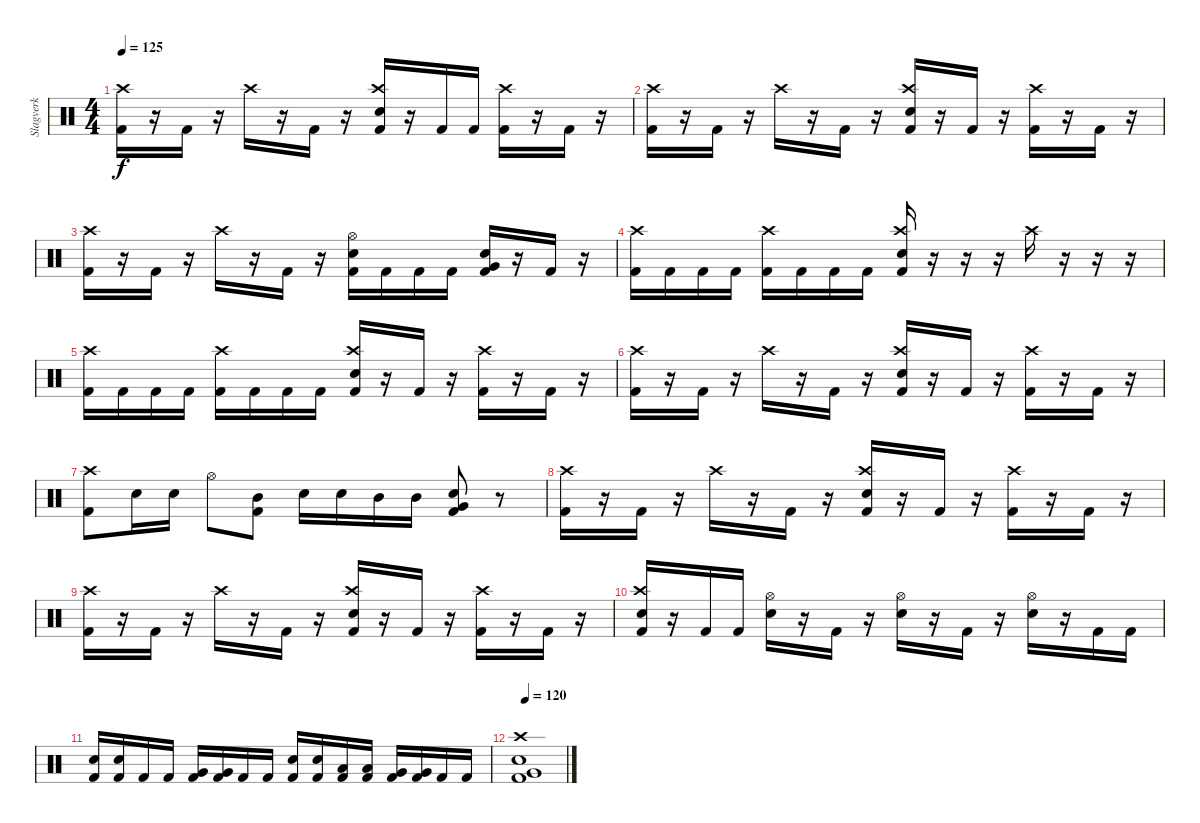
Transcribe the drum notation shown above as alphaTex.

\track ("Slagverk" "Slagverk") {instrument percussion}
\staff {score}
\articulation defaults
\ts (4 4)
\tempo 125
\clef neutral
\ks c
("Kick (hit) 2" "Crash high (hit)").16{dy f} r.16 "Kick (hit) 2".16 r.16 "Crash high (hit)".16 r.16 "Kick (hit) 2".16 r.16 ("Kick (hit) 2" "Snare (hit) 2" "Crash high (hit)").16 r.16 "Kick (hit) 2".16 "Kick (hit) 2".16 ("Kick (hit) 2" "Crash high (hit)").16 r.16 "Kick (hit) 2".16 r.16 |
("Kick (hit) 2" "Crash high (hit)").16 r.16 "Kick (hit) 2".16 r.16 "Crash high (hit)".16 r.16 "Kick (hit) 2".16 r.16 ("Kick (hit) 2" "Snare (hit) 2" "Crash high (hit)").16 r.16 "Kick (hit) 2".16 r.16 ("Kick (hit) 2" "Crash high (hit)").16 r.16 "Kick (hit) 2".16 r.16 |
("Kick (hit) 2" "Crash high (hit)").16 r.16 "Kick (hit) 2".16 r.16 "Crash high (hit)".16 r.16 "Kick (hit) 2".16 r.16 ("Kick (hit) 2" "Snare (hit) 2" "Hi-Hat (open)").16 "Kick (hit) 2".16 "Kick (hit) 2".16 "Kick (hit) 2".16 ("Kick (hit) 2" "Snare (hit) 2" "Very Low Tom (hit)").16 r.16 "Kick (hit) 2".16 r.16 |
("Kick (hit) 2" "Crash high (hit)").16 "Kick (hit) 2".16 "Kick (hit) 2".16 "Kick (hit) 2".16 ("Kick (hit) 2" "Crash high (hit)").16 "Kick (hit) 2".16 "Kick (hit) 2".16 "Kick (hit) 2".16 ("Kick (hit) 2" "Snare (hit) 2" "Crash high (hit)").16 r.16 r.16 r.16 "Crash high (hit)".16 r.16 r.16 r.16 |
("Kick (hit) 2" "Crash high (hit)").16 "Kick (hit) 2".16 "Kick (hit) 2".16 "Kick (hit) 2".16 ("Kick (hit) 2" "Crash high (hit)").16 "Kick (hit) 2".16 "Kick (hit) 2".16 "Kick (hit) 2".16 ("Kick (hit) 2" "Snare (hit) 2" "Crash high (hit)").16 r.16 "Kick (hit) 2".16 r.16 ("Kick (hit) 2" "Crash high (hit)").16 r.16 "Kick (hit) 2".16 r.16 |
("Kick (hit) 2" "Crash high (hit)").16 r.16 "Kick (hit) 2".16 r.16 "Crash high (hit)".16 r.16 "Kick (hit) 2".16 r.16 ("Kick (hit) 2" "Snare (hit) 2" "Crash high (hit)").16 r.16 "Kick (hit) 2".16 r.16 ("Kick (hit) 2" "Crash high (hit)").16 r.16 "Kick (hit) 2".16 r.16 |
("Kick (hit) 2" "Crash high (hit)").8 "Snare (hit) 2".16 "Snare (hit) 2".16 "Hi-Hat (open)".8 ("Kick (hit) 2" "Mid Tom (hit)").8 "Snare (hit) 2".16 "Snare (hit) 2".16 "Mid Tom (hit)".16 "Mid Tom (hit)".16 ("Kick (hit) 2" "Very Low Tom (hit)" "Snare (hit) 2").8 r.8 |
("Kick (hit) 2" "Crash high (hit)").16 r.16 "Kick (hit) 2".16 r.16 "Crash high (hit)".16 r.16 "Kick (hit) 2".16 r.16 ("Kick (hit) 2" "Snare (hit) 2" "Crash high (hit)").16 r.16 "Kick (hit) 2".16 r.16 ("Kick (hit) 2" "Crash high (hit)").16 r.16 "Kick (hit) 2".16 r.16 |
("Kick (hit) 2" "Crash high (hit)").16 r.16 "Kick (hit) 2".16 r.16 "Crash high (hit)".16 r.16 "Kick (hit) 2".16 r.16 ("Kick (hit) 2" "Snare (hit) 2" "Crash high (hit)").16 r.16 "Kick (hit) 2".16 r.16 ("Kick (hit) 2" "Crash high (hit)").16 r.16 "Kick (hit) 2".16 r.16 |
("Kick (hit) 2" "Snare (hit) 2" "Crash high (hit)").16 r.16 "Kick (hit) 2".16 "Kick (hit) 2".16 ("Snare (hit) 2" "Hi-Hat (open)").16 r.16 "Kick (hit) 2".16 r.16 ("Snare (hit) 2" "Hi-Hat (open)").16 r.16 "Kick (hit) 2".16 r.16 ("Snare (hit) 2" "Hi-Hat (open)").16 r.16 "Kick (hit) 2".16 "Kick (hit) 2".16 |
("Kick (hit) 2" "Snare (hit) 2").16 ("Kick (hit) 2" "Snare (hit) 2").16 "Kick (hit) 2".16 "Kick (hit) 2".16 ("Kick (hit) 2" "Very Low Tom (hit)").16 ("Kick (hit) 2" "Very Low Tom (hit)").16 "Kick (hit) 2".16 "Kick (hit) 2".16 ("Kick (hit) 2" "Snare (hit) 2").16 ("Kick (hit) 2" "Snare (hit) 2").16 ("Kick (hit) 2" "Low Tom (hit)").16 ("Kick (hit) 2" "Low Tom (hit)").16 ("Kick (hit) 2" "Very Low Tom (hit)").16 ("Kick (hit) 2" "Very Low Tom (hit)").16 "Kick (hit) 2".16 "Kick (hit) 2".16 |
\tempo 120
("Kick (hit) 2" "Very Low Tom (hit)" "Snare (hit) 2" "Crash high (hit)").1
